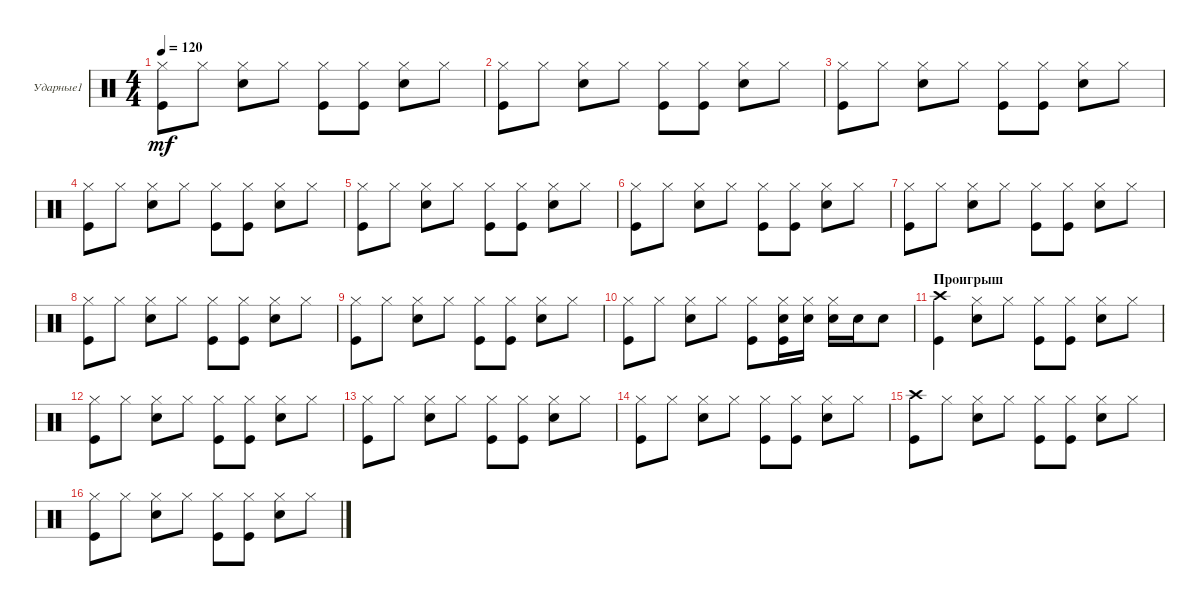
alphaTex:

\defaultSystemsLayout 4
\bracketExtendMode groupsimilarinstruments
\firstSystemTrackNameOrientation horizontal
\otherSystemsTrackNameOrientation horizontal
\track ("Е.Кулаков" "Ударные1") {instrument percussion}
\staff {score}
\articulation defaults
\ts (4 4)
\tempo 120
\clef neutral
\ks c
("Hi-Hat (closed)" "Kick (hit)").8{dy mf} "Hi-Hat (closed)".8 ("Hi-Hat (closed)" "Snare (hit) 2").8 "Hi-Hat (closed)".8 ("Hi-Hat (closed)" "Kick (hit)").8 ("Hi-Hat (closed)" "Kick (hit)").8 ("Hi-Hat (closed)" "Snare (hit) 2").8 "Hi-Hat (closed)".8 |
("Hi-Hat (closed)" "Kick (hit)").8 "Hi-Hat (closed)".8 ("Hi-Hat (closed)" "Snare (hit) 2").8 "Hi-Hat (closed)".8 ("Hi-Hat (closed)" "Kick (hit)").8 ("Hi-Hat (closed)" "Kick (hit)").8 ("Hi-Hat (closed)" "Snare (hit) 2").8 "Hi-Hat (closed)".8 |
("Hi-Hat (closed)" "Kick (hit)").8 "Hi-Hat (closed)".8 ("Hi-Hat (closed)" "Snare (hit) 2").8 "Hi-Hat (closed)".8 ("Hi-Hat (closed)" "Kick (hit)").8 ("Hi-Hat (closed)" "Kick (hit)").8 ("Hi-Hat (closed)" "Snare (hit) 2").8 "Hi-Hat (closed)".8 |
("Hi-Hat (closed)" "Kick (hit)").8 "Hi-Hat (closed)".8 ("Hi-Hat (closed)" "Snare (hit) 2").8 "Hi-Hat (closed)".8 ("Hi-Hat (closed)" "Kick (hit)").8 ("Hi-Hat (closed)" "Kick (hit)").8 ("Hi-Hat (closed)" "Snare (hit) 2").8 "Hi-Hat (closed)".8 |
("Hi-Hat (closed)" "Kick (hit)").8 "Hi-Hat (closed)".8 ("Hi-Hat (closed)" "Snare (hit) 2").8 "Hi-Hat (closed)".8 ("Hi-Hat (closed)" "Kick (hit)").8 ("Hi-Hat (closed)" "Kick (hit)").8 ("Hi-Hat (closed)" "Snare (hit) 2").8 "Hi-Hat (closed)".8 |
("Hi-Hat (closed)" "Kick (hit)").8 "Hi-Hat (closed)".8 ("Hi-Hat (closed)" "Snare (hit) 2").8 "Hi-Hat (closed)".8 ("Hi-Hat (closed)" "Kick (hit)").8 ("Hi-Hat (closed)" "Kick (hit)").8 ("Hi-Hat (closed)" "Snare (hit) 2").8 "Hi-Hat (closed)".8 |
("Hi-Hat (closed)" "Kick (hit)").8 "Hi-Hat (closed)".8 ("Hi-Hat (closed)" "Snare (hit) 2").8 "Hi-Hat (closed)".8 ("Hi-Hat (closed)" "Kick (hit)").8 ("Hi-Hat (closed)" "Kick (hit)").8 ("Hi-Hat (closed)" "Snare (hit) 2").8 "Hi-Hat (closed)".8 |
("Hi-Hat (closed)" "Kick (hit)").8 "Hi-Hat (closed)".8 ("Hi-Hat (closed)" "Snare (hit) 2").8 "Hi-Hat (closed)".8 ("Hi-Hat (closed)" "Kick (hit)").8 ("Hi-Hat (closed)" "Kick (hit)").8 ("Hi-Hat (closed)" "Snare (hit) 2").8 "Hi-Hat (closed)".8 |
("Hi-Hat (closed)" "Kick (hit)").8 "Hi-Hat (closed)".8 ("Hi-Hat (closed)" "Snare (hit) 2").8 "Hi-Hat (closed)".8 ("Hi-Hat (closed)" "Kick (hit)").8 ("Hi-Hat (closed)" "Kick (hit)").8 ("Hi-Hat (closed)" "Snare (hit) 2").8 "Hi-Hat (closed)".8 |
("Hi-Hat (closed)" "Kick (hit)").8 "Hi-Hat (closed)".8 ("Hi-Hat (closed)" "Snare (hit) 2").8 "Hi-Hat (closed)".8 ("Hi-Hat (closed)" "Kick (hit)").8 ("Hi-Hat (closed)" "Kick (hit)" "Snare (hit) 2").16 ("Hi-Hat (closed)" "Snare (hit) 2").16 ("Hi-Hat (closed)" "Snare (hit) 2").16 "Snare (hit) 2".16 "Snare (hit) 2".8 |
\section ("" "Проигрыш")
("Crash high (hit)" "Kick (hit)").4 ("Hi-Hat (closed)" "Snare (hit) 2").8 "Hi-Hat (closed)".8 ("Hi-Hat (closed)" "Kick (hit)").8 ("Hi-Hat (closed)" "Kick (hit)").8 ("Hi-Hat (closed)" "Snare (hit) 2").8 "Hi-Hat (closed)".8 |
("Hi-Hat (closed)" "Kick (hit)").8 "Hi-Hat (closed)".8 ("Hi-Hat (closed)" "Snare (hit) 2").8 "Hi-Hat (closed)".8 ("Hi-Hat (closed)" "Kick (hit)").8 ("Hi-Hat (closed)" "Kick (hit)").8 ("Hi-Hat (closed)" "Snare (hit) 2").8 "Hi-Hat (closed)".8 |
("Hi-Hat (closed)" "Kick (hit)").8 "Hi-Hat (closed)".8 ("Hi-Hat (closed)" "Snare (hit) 2").8 "Hi-Hat (closed)".8 ("Hi-Hat (closed)" "Kick (hit)").8 ("Hi-Hat (closed)" "Kick (hit)").8 ("Hi-Hat (closed)" "Snare (hit) 2").8 "Hi-Hat (closed)".8 |
("Hi-Hat (closed)" "Kick (hit)").8 "Hi-Hat (closed)".8 ("Hi-Hat (closed)" "Snare (hit) 2").8 "Hi-Hat (closed)".8 ("Hi-Hat (closed)" "Kick (hit)").8 ("Hi-Hat (closed)" "Kick (hit)").8 ("Hi-Hat (closed)" "Snare (hit) 2").8 "Hi-Hat (closed)".8 |
("Kick (hit)" "Crash high (hit)").8 "Hi-Hat (closed)".8 ("Hi-Hat (closed)" "Snare (hit) 2").8 "Hi-Hat (closed)".8 ("Hi-Hat (closed)" "Kick (hit)").8 ("Hi-Hat (closed)" "Kick (hit)").8 ("Hi-Hat (closed)" "Snare (hit) 2").8 "Hi-Hat (closed)".8 |
("Hi-Hat (closed)" "Kick (hit)").8 "Hi-Hat (closed)".8 ("Hi-Hat (closed)" "Snare (hit) 2").8 "Hi-Hat (closed)".8 ("Hi-Hat (closed)" "Kick (hit)").8 ("Hi-Hat (closed)" "Kick (hit)").8 ("Hi-Hat (closed)" "Snare (hit) 2").8 "Hi-Hat (closed)".8
